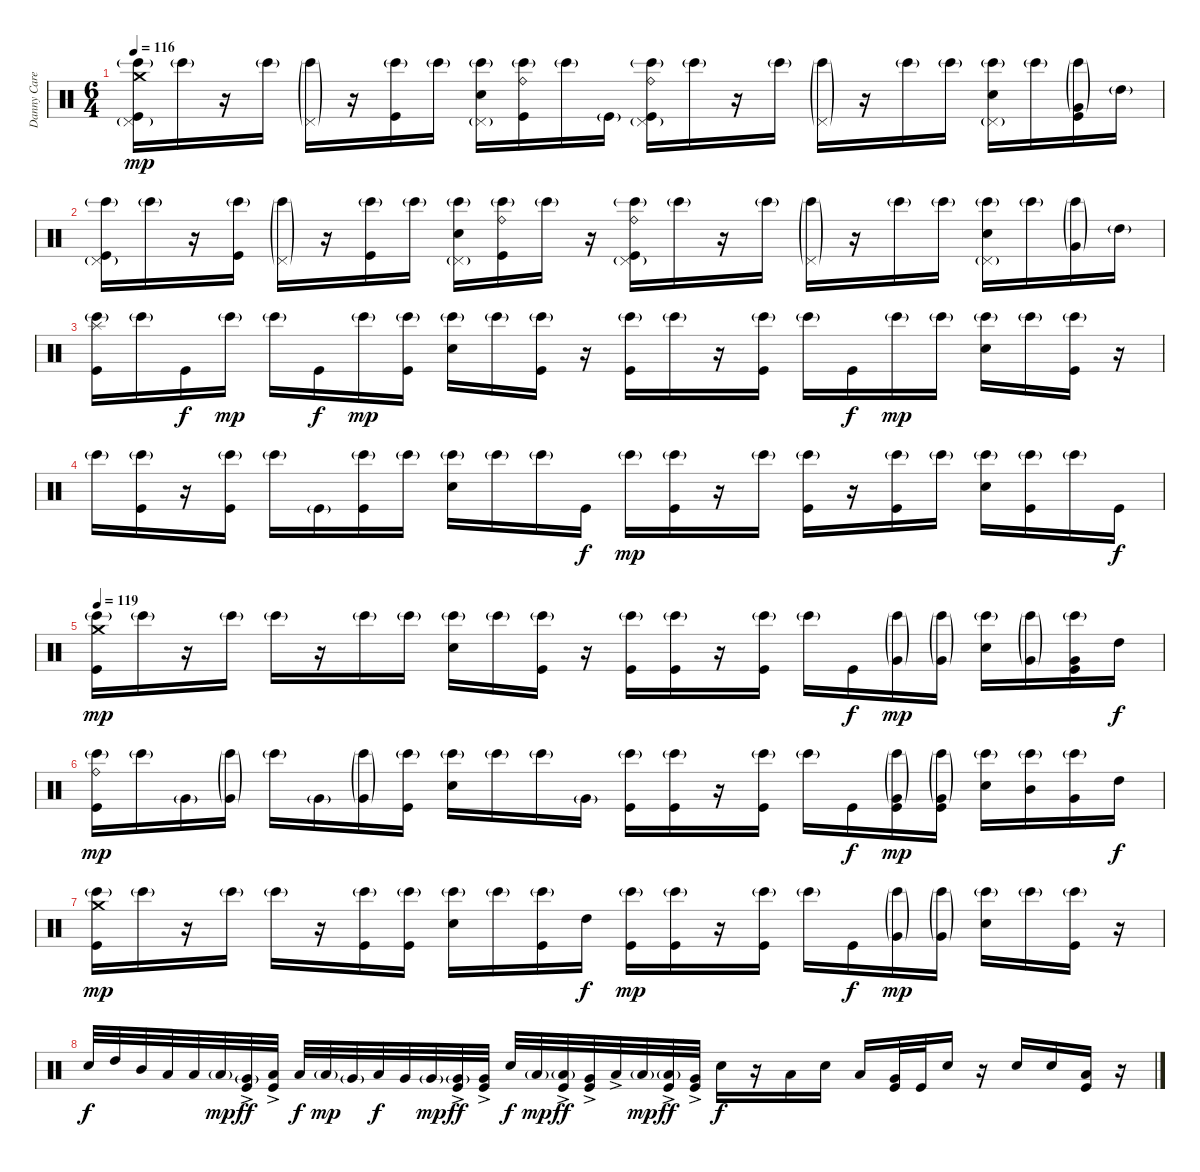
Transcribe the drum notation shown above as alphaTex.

\track ("Danny Carey (drum)" "Danny Care") {instrument percussion}
\staff {score}
\articulation defaults
\ts (6 4)
\tempo 116
\clef neutral
\ks c
("Crash medium (hit)" "Bongo High (hit)"{g} "Pedal Hi-Hat (hit)"{g} "Kick (hit)").16{dy mp} "Bongo High (hit)"{g}.16 r.16 "Bongo High (hit)"{g}.16 ("Bongo High (hit)"{g} "Pedal Hi-Hat (hit)"{g}).16 r.16 ("Bongo High (hit)"{g} "Kick (hit)").16 "Bongo High (hit)"{g}.16 ("Bongo High (hit)"{g} "Pedal Hi-Hat (hit)"{g} "Snare (hit) 2").16 ("Ride (bell)" "Bongo High (hit)"{g} "Kick (hit)").16 "Bongo High (hit)"{g}.16 "Kick (hit)"{g}.16 ("Ride (bell)" "Bongo High (hit)"{g} "Pedal Hi-Hat (hit)"{g} "Kick (hit)").16 "Bongo High (hit)"{g}.16 r.16 "Bongo High (hit)"{g}.16 ("Bongo High (hit)"{g} "Pedal Hi-Hat (hit)"{g}).16 r.16 "Bongo High (hit)"{g}.16 "Bongo High (hit)"{g}.16 ("Bongo High (hit)"{g} "Pedal Hi-Hat (hit)"{g} "Snare (hit) 2").16 "Bongo High (hit)"{g}.16 ("Bongo High (hit)"{g} "Very Low Tom (hit)"{g} "Kick (hit)").16 "High Tom (hit)"{g}.16 |
("Bongo High (hit)"{g} "Pedal Hi-Hat (hit)"{g} "Kick (hit)").16 "Bongo High (hit)"{g}.16 r.16 ("Bongo High (hit)"{g} "Kick (hit)").16 ("Bongo High (hit)"{g} "Pedal Hi-Hat (hit)"{g}).16 r.16 ("Bongo High (hit)"{g} "Kick (hit)").16 "Bongo High (hit)"{g}.16 ("Bongo High (hit)"{g} "Pedal Hi-Hat (hit)"{g} "Snare (hit) 2").16 ("Ride (bell)" "Bongo High (hit)"{g} "Kick (hit)").16 "Bongo High (hit)"{g}.16 r.16 ("Ride (bell)" "Bongo High (hit)"{g} "Pedal Hi-Hat (hit)"{g} "Kick (hit)").16 "Bongo High (hit)"{g}.16 r.16 "Bongo High (hit)"{g}.16 ("Bongo High (hit)"{g} "Pedal Hi-Hat (hit)"{g}).16 r.16 "Bongo High (hit)"{g}.16 "Bongo High (hit)"{g}.16 ("Bongo High (hit)"{g} "Pedal Hi-Hat (hit)"{g} "Snare (hit) 2").16 "Bongo High (hit)"{g}.16 ("Bongo High (hit)"{g} "Very Low Tom (hit)"{g}).16 "High Tom (hit)"{g}.16 |
("Splash (hit)" "Bongo High (hit)"{g} "Kick (hit)").16 "Bongo High (hit)"{g}.16 "Kick (hit)".16{dy f} "Bongo High (hit)"{g}.16{dy mp} "Bongo High (hit)"{g}.16 "Kick (hit)".16{dy f} "Bongo High (hit)"{g}.16{dy mp} ("Bongo High (hit)"{g} "Kick (hit)").16 ("Bongo High (hit)"{g} "Snare (hit) 2").16 "Bongo High (hit)"{g}.16 ("Bongo High (hit)"{g} "Kick (hit)").16 r.16 ("Bongo High (hit)"{g} "Kick (hit)").16 "Bongo High (hit)"{g}.16 r.16 ("Bongo High (hit)"{g} "Kick (hit)").16 "Bongo High (hit)"{g}.16 "Kick (hit)".16{dy f} "Bongo High (hit)"{g}.16{dy mp} "Bongo High (hit)"{g}.16 ("Bongo High (hit)"{g} "Snare (hit) 2").16 "Bongo High (hit)"{g}.16 ("Bongo High (hit)"{g} "Kick (hit)").16 r.16 |
"Bongo High (hit)"{g}.16 ("Bongo High (hit)"{g} "Kick (hit)").16 r.16 ("Bongo High (hit)"{g} "Kick (hit)").16 "Bongo High (hit)"{g}.16 "Kick (hit)"{g}.16 ("Bongo High (hit)"{g} "Kick (hit)").16 "Bongo High (hit)"{g}.16 ("Bongo High (hit)"{g} "Snare (hit) 2").16 "Bongo High (hit)"{g}.16 "Bongo High (hit)"{g}.16 "Kick (hit)".16{dy f} "Bongo High (hit)"{g}.16{dy mp} ("Bongo High (hit)"{g} "Kick (hit)").16 r.16 "Bongo High (hit)"{g}.16 ("Bongo High (hit)"{g} "Kick (hit)").16 r.16 ("Bongo High (hit)"{g} "Kick (hit)").16 "Bongo High (hit)"{g}.16 ("Bongo High (hit)"{g} "Snare (hit) 2").16 ("Bongo High (hit)"{g} "Kick (hit)").16 "Bongo High (hit)"{g}.16 "Kick (hit)".16{dy f} |
\tempo 119
("Crash medium (hit)" "Bongo High (hit)"{g} "Kick (hit)").16{dy mp} "Bongo High (hit)"{g}.16 r.16 "Bongo High (hit)"{g}.16 "Bongo High (hit)"{g}.16 r.16 "Bongo High (hit)"{g}.16 "Bongo High (hit)"{g}.16 ("Bongo High (hit)"{g} "Snare (hit) 2").16 "Bongo High (hit)"{g}.16 ("Bongo High (hit)"{g} "Kick (hit)").16 r.16 ("Bongo High (hit)"{g} "Kick (hit)").16 ("Bongo High (hit)"{g} "Kick (hit)").16 r.16 ("Bongo High (hit)"{g} "Kick (hit)").16 "Bongo High (hit)"{g}.16 "Kick (hit)".16{dy f} ("Bongo High (hit)"{g} "Very Low Tom (hit)"{g}).16{dy mp} ("Bongo High (hit)"{g} "Very Low Tom (hit)"{g}).16 ("Bongo High (hit)"{g} "Snare (hit) 2").16 ("Bongo High (hit)"{g} "Very Low Tom (hit)"{g}).16 ("Bongo High (hit)"{g} "Very Low Tom (hit)" "Kick (hit)").16 "High Tom (hit)".16{dy f} |
("Ride (bell)" "Bongo High (hit)"{g} "Kick (hit)").16{dy mp} "Bongo High (hit)"{g}.16 "Very Low Tom (hit)"{g}.16 ("Bongo High (hit)"{g} "Very Low Tom (hit)"{g}).16 "Bongo High (hit)"{g}.16 "Very Low Tom (hit)"{g}.16 ("Bongo High (hit)"{g} "Very Low Tom (hit)"{g}).16 ("Bongo High (hit)"{g} "Kick (hit)").16 ("Bongo High (hit)"{g} "Snare (hit) 2").16 "Bongo High (hit)"{g}.16 "Bongo High (hit)"{g}.16 "Very Low Tom (hit)"{g}.16 ("Bongo High (hit)"{g} "Kick (hit)").16 ("Bongo High (hit)"{g} "Kick (hit)").16 r.16 ("Bongo High (hit)"{g} "Kick (hit)").16 "Bongo High (hit)"{g}.16 "Kick (hit)".16{dy f} ("Bongo High (hit)"{g} "Very Low Tom (hit)"{g} "Kick (hit)").16{dy mp} ("Bongo High (hit)"{g} "Very Low Tom (hit)"{g} "Kick (hit)").16 ("Bongo High (hit)"{g} "Snare (hit) 2").16 ("Bongo High (hit)"{g} "Mid Tom (hit)").16 ("Bongo High (hit)"{g} "Very Low Tom (hit)").16 "High Tom (hit)".16{dy f} |
("Crash medium (hit)" "Bongo High (hit)"{g} "Kick (hit)").16{dy mp} "Bongo High (hit)"{g}.16 r.16 "Bongo High (hit)"{g}.16 "Bongo High (hit)"{g}.16 r.16 ("Bongo High (hit)"{g} "Kick (hit)").16 ("Bongo High (hit)"{g} "Kick (hit)").16 ("Bongo High (hit)"{g} "Snare (hit) 2").16 "Bongo High (hit)"{g}.16 ("Bongo High (hit)"{g} "Kick (hit)").16 "High Tom (hit)".16{dy f} ("Bongo High (hit)"{g} "Kick (hit)").16{dy mp} ("Bongo High (hit)"{g} "Kick (hit)").16 r.16 ("Bongo High (hit)"{g} "Kick (hit)").16 "Bongo High (hit)"{g}.16 "Kick (hit)".16{dy f} ("Bongo High (hit)"{g} "Very Low Tom (hit)"{g}).16{dy mp} ("Bongo High (hit)"{g} "Very Low Tom (hit)"{g}).16 ("Bongo High (hit)"{g} "Snare (hit) 2").16 "Bongo High (hit)"{g}.16 ("Bongo High (hit)"{g} "Kick (hit)").16 r.16 |
"Snare (hit) 2".32{dy f} "High Tom (hit)".32 "Mid Tom (hit)".32 "Low Tom (hit)".32 "Low Tom (hit)".32 "Low Tom (hit)"{g}.32{dy mp} ("Very Low Tom (hit)"{g} "Kick (hit)"{ac}).32{dy ff} ("Low Floor Tom (hit)" "Kick (hit)"{ac}).32 "Low Tom (hit)".32{dy f} "Low Tom (hit)"{g}.32{dy mp} "Very Low Tom (hit)"{g}.32 "Low Floor Tom (hit)".32{dy f} "Very Low Tom (hit)".32 "Very Low Tom (hit)"{g}.32{dy mp} ("Very Low Tom (hit)"{g} "Kick (hit)"{ac}).32{dy ff} ("Very Low Tom (hit)" "Kick (hit)"{ac}).32 "Snare (hit) 2".32{dy f} "Low Tom (hit)"{g}.32{dy mp} ("Low Tom (hit)"{g} "Kick (hit)"{ac}).32{dy ff} ("Very Low Tom (hit)" "Kick (hit)"{ac}).32 "Low Floor Tom (hit)"{ac}.32 "Low Floor Tom (hit)"{g}.32{dy mp} ("Low Floor Tom (hit)"{g} "Kick (hit)"{ac}).32{dy ff} ("Very Low Tom (hit)" "Kick (hit)"{ac}).32 "Snare (hit) 2".16{dy f} r.16 "Low Floor Tom (hit)".16 "Snare (hit) 2".16 "Low Tom (hit)".16 ("Very Low Tom (hit)" "Kick (hit)").32 "Kick (hit)".32 "Snare (hit) 2".16 r.16 "Snare (hit) 2".16 "Snare (hit) 2".16 ("Low Floor Tom (hit)" "Kick (hit)").16 r.16
